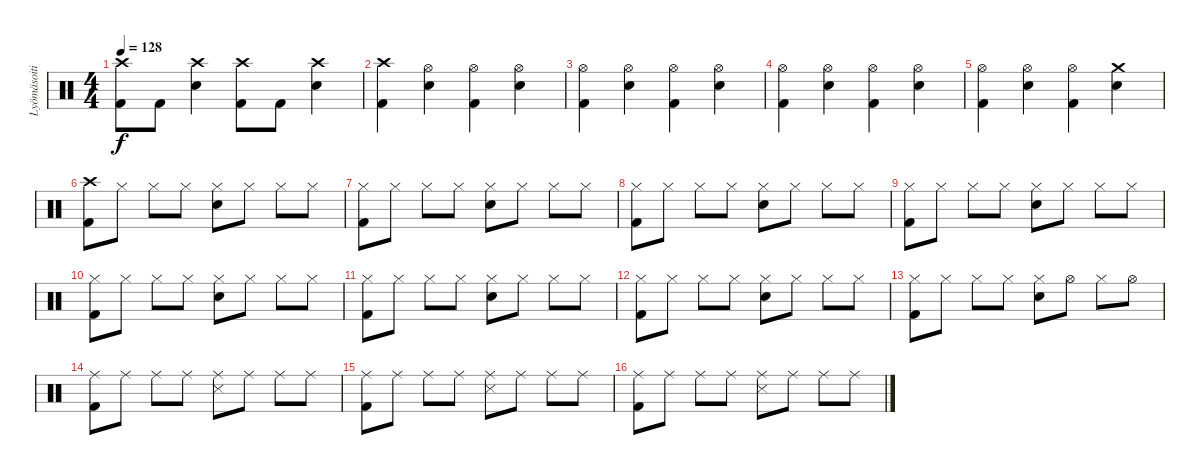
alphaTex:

\track ("Lyömäsoitin" "Lyömäsoiti") {instrument percussion}
\staff {score}
\articulation defaults
\ts (4 4)
\tempo 128
\clef neutral
\ks c
("Crash high (hit)" "Kick (hit) 2").8{dy f} "Kick (hit) 2".8 ("Crash high (hit)" "Electric Snare (hit)").4 ("Crash high (hit)" "Kick (hit) 2").8 "Kick (hit) 2".8 ("Crash high (hit)" "Electric Snare (hit)").4 |
("Crash high (hit)" "Kick (hit) 2").4 ("Hi-Hat (open)" "Electric Snare (hit)").4 ("Hi-Hat (open)" "Kick (hit) 2").4 ("Hi-Hat (open)" "Electric Snare (hit)").4 |
("Hi-Hat (open)" "Kick (hit) 2").4 ("Hi-Hat (open)" "Electric Snare (hit)").4 ("Hi-Hat (open)" "Kick (hit) 2").4 ("Hi-Hat (open)" "Electric Snare (hit)").4 |
("Hi-Hat (open)" "Kick (hit) 2").4 ("Hi-Hat (open)" "Electric Snare (hit)").4 ("Hi-Hat (open)" "Kick (hit) 2").4 ("Hi-Hat (open)" "Electric Snare (hit)").4 |
("Hi-Hat (open)" "Kick (hit) 2").4 ("Hi-Hat (open)" "Electric Snare (hit)").4 ("Hi-Hat (open)" "Kick (hit) 2").4 ("Crash medium (hit)" "Electric Snare (hit)").4 |
("Crash high (hit)" "Kick (hit) 2").8 "Hi-Hat (closed)".8 "Hi-Hat (closed)".8 "Hi-Hat (closed)".8 ("Hi-Hat (closed)" "Electric Snare (hit)").8 "Hi-Hat (closed)".8 "Hi-Hat (closed)".8 "Hi-Hat (closed)".8 |
("Hi-Hat (closed)" "Kick (hit) 2").8 "Hi-Hat (closed)".8 "Hi-Hat (closed)".8 "Hi-Hat (closed)".8 ("Hi-Hat (closed)" "Electric Snare (hit)").8 "Hi-Hat (closed)".8 "Hi-Hat (closed)".8 "Hi-Hat (closed)".8 |
("Hi-Hat (closed)" "Kick (hit) 2").8 "Hi-Hat (closed)".8 "Hi-Hat (closed)".8 "Hi-Hat (closed)".8 ("Hi-Hat (closed)" "Electric Snare (hit)").8 "Hi-Hat (closed)".8 "Hi-Hat (closed)".8 "Hi-Hat (closed)".8 |
("Hi-Hat (closed)" "Kick (hit) 2").8 "Hi-Hat (closed)".8 "Hi-Hat (closed)".8 "Hi-Hat (closed)".8 ("Hi-Hat (closed)" "Electric Snare (hit)").8 "Hi-Hat (closed)".8 "Hi-Hat (closed)".8 "Hi-Hat (closed)".8 |
("Hi-Hat (closed)" "Kick (hit) 2").8 "Hi-Hat (closed)".8 "Hi-Hat (closed)".8 "Hi-Hat (closed)".8 ("Hi-Hat (closed)" "Electric Snare (hit)").8 "Hi-Hat (closed)".8 "Hi-Hat (closed)".8 "Hi-Hat (closed)".8 |
("Hi-Hat (closed)" "Kick (hit) 2").8 "Hi-Hat (closed)".8 "Hi-Hat (closed)".8 "Hi-Hat (closed)".8 ("Hi-Hat (closed)" "Electric Snare (hit)").8 "Hi-Hat (closed)".8 "Hi-Hat (closed)".8 "Hi-Hat (closed)".8 |
("Hi-Hat (closed)" "Kick (hit) 2").8 "Hi-Hat (closed)".8 "Hi-Hat (closed)".8 "Hi-Hat (closed)".8 ("Hi-Hat (closed)" "Electric Snare (hit)").8 "Hi-Hat (closed)".8 "Hi-Hat (closed)".8 "Hi-Hat (closed)".8 |
("Hi-Hat (closed)" "Kick (hit) 2").8 "Hi-Hat (closed)".8 "Hi-Hat (closed)".8 "Hi-Hat (closed)".8 ("Hi-Hat (closed)" "Electric Snare (hit)").8 "Hi-Hat (open)".8 "Hi-Hat (closed)".8 "Hi-Hat (open)".8 |
("Ride (middle)" "Kick (hit) 2").8 "Ride (middle)".8 "Ride (middle)".8 "Ride (middle)".8 ("Ride (middle)" "Snare (side stick) 3").8 "Ride (middle)".8 "Ride (middle)".8 "Ride (middle)".8 |
("Ride (middle)" "Kick (hit) 2").8 "Ride (middle)".8 "Ride (middle)".8 "Ride (middle)".8 ("Ride (middle)" "Snare (side stick) 3").8 "Ride (middle)".8 "Ride (middle)".8 "Ride (middle)".8 |
("Ride (middle)" "Kick (hit) 2").8 "Ride (middle)".8 "Ride (middle)".8 "Ride (middle)".8 ("Ride (middle)" "Snare (side stick) 3").8 "Ride (middle)".8 "Ride (middle)".8 "Ride (middle)".8
